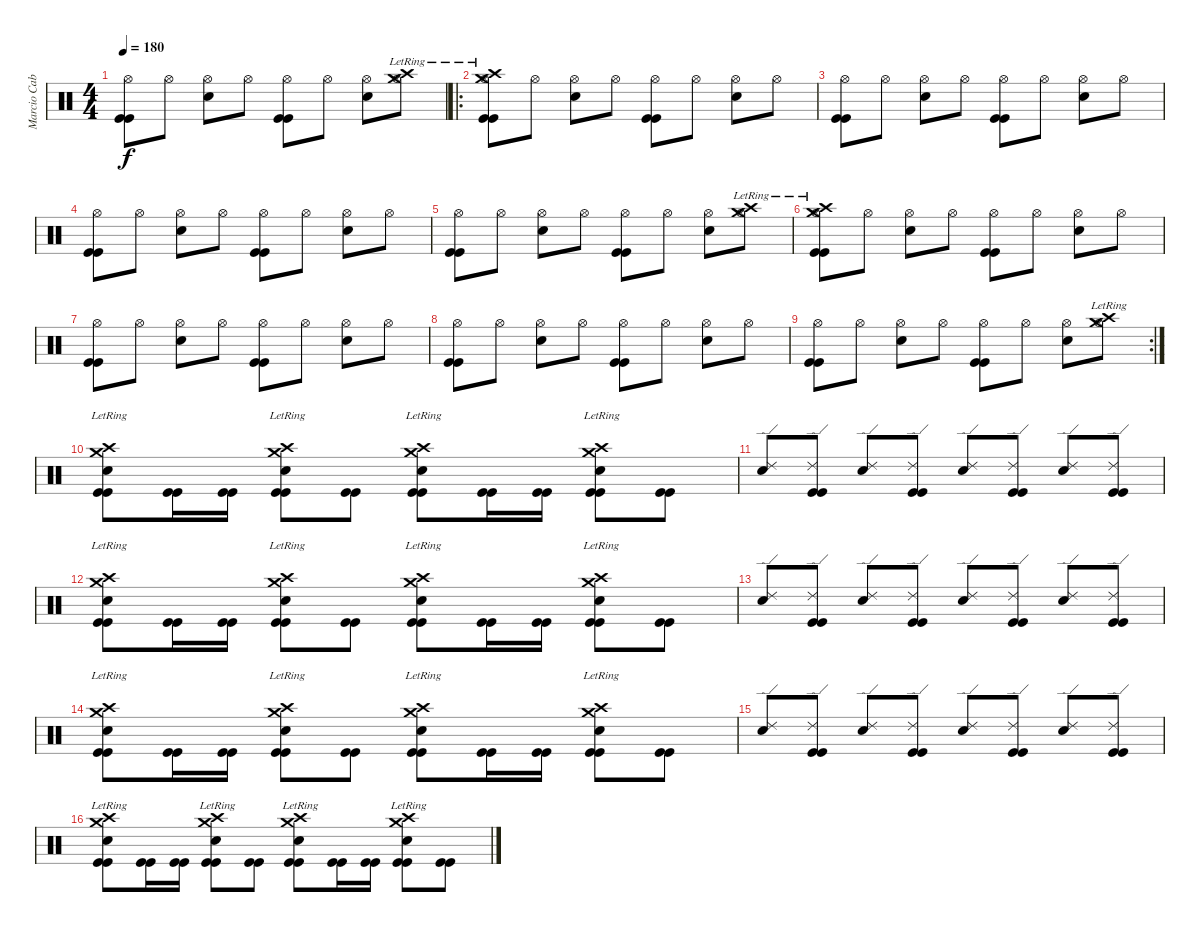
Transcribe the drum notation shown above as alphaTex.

\track ("Marcio Cabrita" "Marcio Cab") {instrument percussion}
\staff {score}
\articulation defaults
\ts (4 4)
\tempo 180
\clef neutral
\ks c
("Hi-Hat (open)" "Kick (hit)" "Kick (hit)").8{dy f} "Hi-Hat (open)".8 ("Snare (hit) 2" "Hi-Hat (open)").8 "Hi-Hat (open)".8 ("Hi-Hat (open)" "Kick (hit)" "Kick (hit)").8 "Hi-Hat (open)".8 ("Snare (hit) 2" "Hi-Hat (open)").8 ("Crash high (hit)"{lr} "Crash medium (hit)"{lr} "Hi-Hat (open)").8 |
\ro
("Crash high (hit)"{lr} "Crash medium (hit)"{lr} "Hi-Hat (open)" "Kick (hit)" "Kick (hit)").8 "Hi-Hat (open)".8 ("Snare (hit) 2" "Hi-Hat (open)").8 "Hi-Hat (open)".8 ("Hi-Hat (open)" "Kick (hit)" "Kick (hit)").8 "Hi-Hat (open)".8 ("Snare (hit) 2" "Hi-Hat (open)").8 "Hi-Hat (open)".8 |
("Hi-Hat (open)" "Kick (hit)" "Kick (hit)").8 "Hi-Hat (open)".8 ("Snare (hit) 2" "Hi-Hat (open)").8 "Hi-Hat (open)".8 ("Hi-Hat (open)" "Kick (hit)" "Kick (hit)").8 "Hi-Hat (open)".8 ("Snare (hit) 2" "Hi-Hat (open)").8 "Hi-Hat (open)".8 |
("Hi-Hat (open)" "Kick (hit)" "Kick (hit)").8 "Hi-Hat (open)".8 ("Snare (hit) 2" "Hi-Hat (open)").8 "Hi-Hat (open)".8 ("Hi-Hat (open)" "Kick (hit)" "Kick (hit)").8 "Hi-Hat (open)".8 ("Snare (hit) 2" "Hi-Hat (open)").8 "Hi-Hat (open)".8 |
("Hi-Hat (open)" "Kick (hit)" "Kick (hit)").8 "Hi-Hat (open)".8 ("Snare (hit) 2" "Hi-Hat (open)").8 "Hi-Hat (open)".8 ("Hi-Hat (open)" "Kick (hit)" "Kick (hit)").8 "Hi-Hat (open)".8 ("Snare (hit) 2" "Hi-Hat (open)").8 ("Crash high (hit)"{lr} "Crash medium (hit)"{lr} "Hi-Hat (open)").8 |
("Crash high (hit)"{lr} "Crash medium (hit)"{lr} "Hi-Hat (open)" "Kick (hit)" "Kick (hit)").8 "Hi-Hat (open)".8 ("Snare (hit) 2" "Hi-Hat (open)").8 "Hi-Hat (open)".8 ("Hi-Hat (open)" "Kick (hit)" "Kick (hit)").8 "Hi-Hat (open)".8 ("Snare (hit) 2" "Hi-Hat (open)").8 "Hi-Hat (open)".8 |
("Hi-Hat (open)" "Kick (hit)" "Kick (hit)").8 "Hi-Hat (open)".8 ("Snare (hit) 2" "Hi-Hat (open)").8 "Hi-Hat (open)".8 ("Hi-Hat (open)" "Kick (hit)" "Kick (hit)").8 "Hi-Hat (open)".8 ("Snare (hit) 2" "Hi-Hat (open)").8 "Hi-Hat (open)".8 |
("Hi-Hat (open)" "Kick (hit)" "Kick (hit)").8 "Hi-Hat (open)".8 ("Snare (hit) 2" "Hi-Hat (open)").8 "Hi-Hat (open)".8 ("Hi-Hat (open)" "Kick (hit)" "Kick (hit)").8 "Hi-Hat (open)".8 ("Snare (hit) 2" "Hi-Hat (open)").8 "Hi-Hat (open)".8 |
\rc 2
("Hi-Hat (open)" "Kick (hit)" "Kick (hit)").8 "Hi-Hat (open)".8 ("Snare (hit) 2" "Hi-Hat (open)").8 "Hi-Hat (open)".8 ("Hi-Hat (open)" "Kick (hit)" "Kick (hit)").8 "Hi-Hat (open)".8 ("Snare (hit) 2" "Hi-Hat (open)").8 ("Crash high (hit)"{lr} "Crash medium (hit)"{lr} "Hi-Hat (open)").8 |
("Crash high (hit)"{lr} "Crash medium (hit)"{lr} "Snare (hit) 2" "Kick (hit)" "Kick (hit)").8 ("Kick (hit)" "Kick (hit)").16 ("Kick (hit)" "Kick (hit)").16 ("Crash high (hit)"{lr} "Crash medium (hit)"{lr} "Snare (hit) 2" "Kick (hit)" "Kick (hit)").8 ("Kick (hit)" "Kick (hit)").8 ("Crash high (hit)"{lr} "Crash medium (hit)"{lr} "Snare (hit) 2" "Kick (hit)" "Kick (hit)").8 ("Kick (hit)" "Kick (hit)").16 ("Kick (hit)" "Kick (hit)").16 ("Crash high (hit)"{lr} "Crash medium (hit)"{lr} "Snare (hit) 2" "Kick (hit)" "Kick (hit)").8 ("Kick (hit)" "Kick (hit)").8 |
("Snare (hit) 2" "Ride (edge) 2").8 ("Ride (edge) 2" "Kick (hit)" "Kick (hit)").8 ("Snare (hit) 2" "Ride (edge) 2").8 ("Ride (edge) 2" "Kick (hit)" "Kick (hit)").8 ("Snare (hit) 2" "Ride (edge) 2").8 ("Ride (edge) 2" "Kick (hit)" "Kick (hit)").8 ("Snare (hit) 2" "Ride (edge) 2").8 ("Ride (edge) 2" "Kick (hit)" "Kick (hit)").8 |
("Crash high (hit)"{lr} "Crash medium (hit)"{lr} "Snare (hit) 2" "Kick (hit)" "Kick (hit)").8 ("Kick (hit)" "Kick (hit)").16 ("Kick (hit)" "Kick (hit)").16 ("Crash high (hit)"{lr} "Crash medium (hit)"{lr} "Snare (hit) 2" "Kick (hit)" "Kick (hit)").8 ("Kick (hit)" "Kick (hit)").8 ("Crash high (hit)"{lr} "Crash medium (hit)"{lr} "Snare (hit) 2" "Kick (hit)" "Kick (hit)").8 ("Kick (hit)" "Kick (hit)").16 ("Kick (hit)" "Kick (hit)").16 ("Crash high (hit)"{lr} "Crash medium (hit)"{lr} "Snare (hit) 2" "Kick (hit)" "Kick (hit)").8 ("Kick (hit)" "Kick (hit)").8 |
("Snare (hit) 2" "Ride (edge) 2").8 ("Ride (edge) 2" "Kick (hit)" "Kick (hit)").8 ("Snare (hit) 2" "Ride (edge) 2").8 ("Ride (edge) 2" "Kick (hit)" "Kick (hit)").8 ("Snare (hit) 2" "Ride (edge) 2").8 ("Ride (edge) 2" "Kick (hit)" "Kick (hit)").8 ("Snare (hit) 2" "Ride (edge) 2").8 ("Ride (edge) 2" "Kick (hit)" "Kick (hit)").8 |
("Crash high (hit)"{lr} "Crash medium (hit)"{lr} "Snare (hit) 2" "Kick (hit)" "Kick (hit)").8 ("Kick (hit)" "Kick (hit)").16 ("Kick (hit)" "Kick (hit)").16 ("Crash high (hit)"{lr} "Crash medium (hit)"{lr} "Snare (hit) 2" "Kick (hit)" "Kick (hit)").8 ("Kick (hit)" "Kick (hit)").8 ("Crash high (hit)"{lr} "Crash medium (hit)"{lr} "Snare (hit) 2" "Kick (hit)" "Kick (hit)").8 ("Kick (hit)" "Kick (hit)").16 ("Kick (hit)" "Kick (hit)").16 ("Crash high (hit)"{lr} "Crash medium (hit)"{lr} "Snare (hit) 2" "Kick (hit)" "Kick (hit)").8 ("Kick (hit)" "Kick (hit)").8 |
("Snare (hit) 2" "Ride (edge) 2").8 ("Ride (edge) 2" "Kick (hit)" "Kick (hit)").8 ("Snare (hit) 2" "Ride (edge) 2").8 ("Ride (edge) 2" "Kick (hit)" "Kick (hit)").8 ("Snare (hit) 2" "Ride (edge) 2").8 ("Ride (edge) 2" "Kick (hit)" "Kick (hit)").8 ("Snare (hit) 2" "Ride (edge) 2").8 ("Ride (edge) 2" "Kick (hit)" "Kick (hit)").8 |
("Crash high (hit)"{lr} "Crash medium (hit)"{lr} "Snare (hit) 2" "Kick (hit)" "Kick (hit)").8 ("Kick (hit)" "Kick (hit)").16 ("Kick (hit)" "Kick (hit)").16 ("Crash high (hit)"{lr} "Crash medium (hit)"{lr} "Snare (hit) 2" "Kick (hit)" "Kick (hit)").8 ("Kick (hit)" "Kick (hit)").8 ("Crash high (hit)"{lr} "Crash medium (hit)"{lr} "Snare (hit) 2" "Kick (hit)" "Kick (hit)").8 ("Kick (hit)" "Kick (hit)").16 ("Kick (hit)" "Kick (hit)").16 ("Crash high (hit)"{lr} "Crash medium (hit)"{lr} "Snare (hit) 2" "Kick (hit)" "Kick (hit)").8 ("Kick (hit)" "Kick (hit)").8
